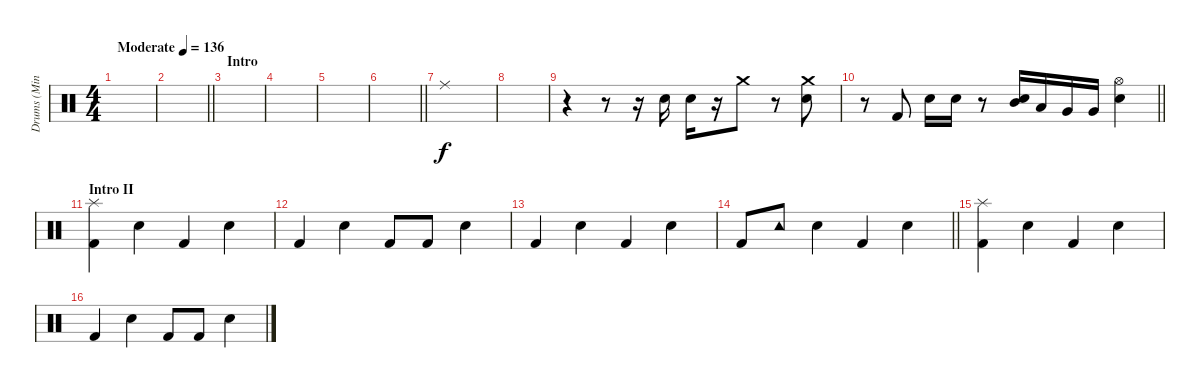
\track ("Drums (Minato)" "Drums (Min") {instrument percussion}
\staff {score}
\articulation defaults
\ts (4 4)
\tempo (136 "Moderate")
\clef neutral
\ks c
|
\barLineRight lightlight
|
\section ("" "Intro")
|
|
|
\barLineRight lightlight
|
"Ride (middle)".1 |
|
r.4 r.8 r.16 "Snare (hit) 2".16 "Snare (hit) 2".16 r.16 "Crash medium (hit)".8 r.8 ("Crash medium (hit)" "Snare (hit) 2").8 |
\barLineRight lightlight
r.8 "Kick (hit) 2".8 "Snare (hit) 2".16 "Snare (hit) 2".16 r.8 ("Mid Tom (hit)" "Snare (hit) 2").16 "Low Tom (hit)".16 "Very Low Tom (hit)".16 "Very Low Tom (hit)".16 ("Hi-Hat (open)" "Snare (hit) 2").4 |
\section ("" "Intro II")
("Splash (hit)" "Kick (hit) 2").4 "Snare (hit) 2".4 "Kick (hit) 2".4 "Snare (hit) 2".4 |
"Kick (hit) 2".4 "Snare (hit) 2".4 "Kick (hit) 2".8 "Kick (hit) 2".8 "Snare (hit) 2".4 |
"Kick (hit) 2".4 "Snare (hit) 2".4 "Kick (hit) 2".4 "Snare (hit) 2".4 |
\barLineRight lightlight "Kick (hit) 2".8 "Tambourine (hit)".8 "Snare (hit) 2".4 "Kick (hit) 2".4 "Snare (hit) 2".4
|
("Splash (hit)" "Kick (hit) 2").4 "Snare (hit) 2".4 "Kick (hit) 2".4 "Snare (hit) 2".4 |
"Kick (hit) 2".4 "Snare (hit) 2".4 "Kick (hit) 2".8 "Kick (hit) 2".8 "Snare (hit) 2".4
